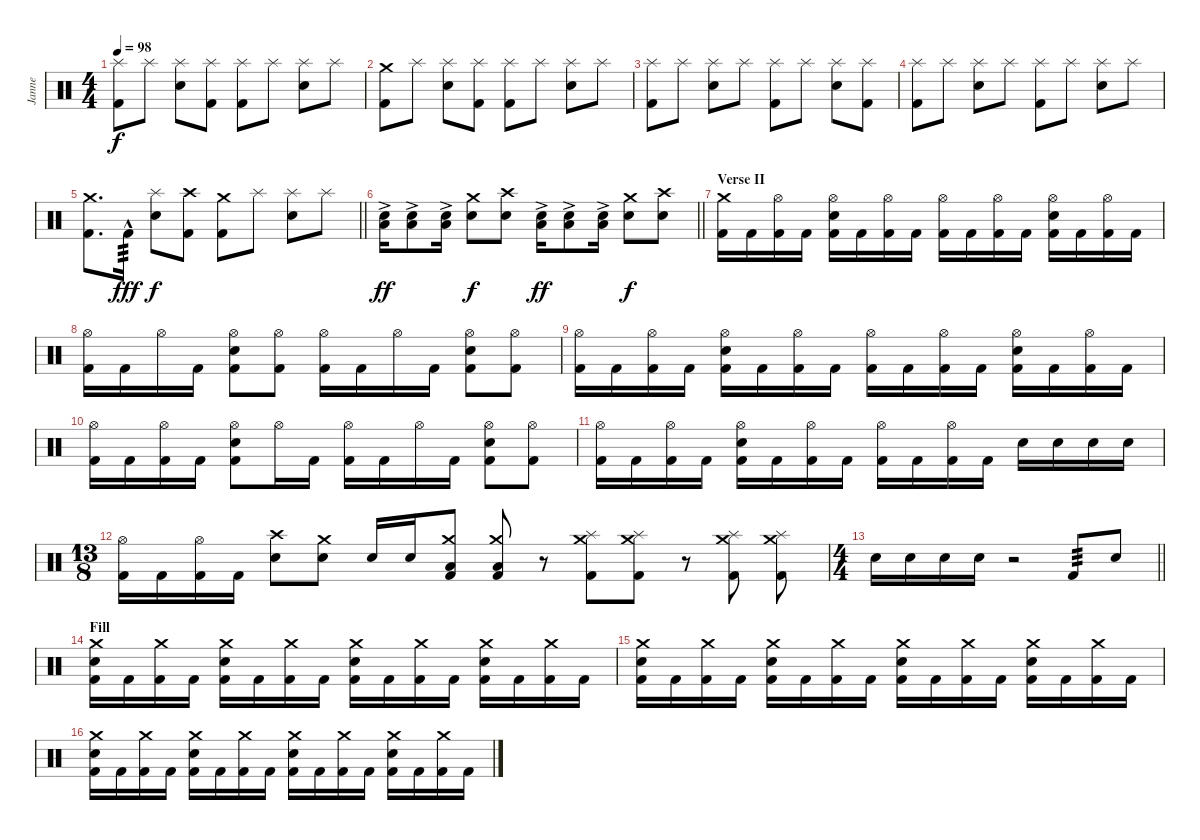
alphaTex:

\track ("Janne" "Janne") {instrument percussion}
\staff {score}
\articulation defaults
\ts (4 4)
\tempo 98
\clef neutral
\ks c
("Kick (hit) 2" "Splash (hit)").8{dy f} "Splash (hit)".8 ("Snare (hit) 2" "Splash (hit)").8 ("Kick (hit) 2" "Splash (hit)").8 ("Kick (hit) 2" "Splash (hit)").8 "Splash (hit)".8 ("Snare (hit) 2" "Splash (hit)").8 "Splash (hit)".8 |
("Kick (hit) 2" "Crash medium (hit)").8 "Splash (hit)".8 ("Snare (hit) 2" "Splash (hit)").8 ("Kick (hit) 2" "Splash (hit)").8 ("Kick (hit) 2" "Splash (hit)").8 "Splash (hit)".8 ("Snare (hit) 2" "Splash (hit)").8 "Splash (hit)".8 |
("Kick (hit) 2" "Splash (hit)").8 "Splash (hit)".8 ("Snare (hit) 2" "Splash (hit)").8 "Splash (hit)".8 ("Kick (hit) 2" "Splash (hit)").8 "Splash (hit)".8 ("Snare (hit) 2" "Splash (hit)").8 ("Kick (hit) 2" "Splash (hit)").8 |
("Kick (hit) 2" "Splash (hit)").8 "Splash (hit)".8 ("Snare (hit) 2" "Splash (hit)").8 "Splash (hit)".8 ("Kick (hit) 2" "Splash (hit)").8 "Splash (hit)".8 ("Snare (hit) 2" "Splash (hit)").8 "Splash (hit)".8 |
\barLineRight lightlight
("Kick (hit) 2" "Crash medium (hit)").8{d} "Kick (hit) 2"{hac}.16{tp 3 dy fff} ("Snare (hit) 2" "Splash (hit)").8{dy f} ("Kick (hit) 2" "Crash high (hit)").8 ("Kick (hit) 2" "Crash medium (hit)").8 "Splash (hit)".8 ("Snare (hit) 2" "Splash (hit)").8 "Splash (hit)".8 |
\section ("" "")
\barLineRight lightlight
("Snare (hit) 2" "Low Floor Tom (hit)"{ac}).16{dy ff} ("Snare (hit) 2" "Low Floor Tom (hit)"{ac}).8 ("Snare (hit) 2" "Low Floor Tom (hit)"{ac}).16 ("Snare (hit) 2" "Crash medium (hit)").8{dy f} ("Snare (hit) 2" "Crash high (hit)").8 ("Snare (hit) 2" "Low Floor Tom (hit)"{ac}).16{dy ff} ("Snare (hit) 2" "Low Floor Tom (hit)"{ac}).8 ("Snare (hit) 2" "Low Floor Tom (hit)"{ac}).16 ("Snare (hit) 2" "Crash medium (hit)").8{dy f} ("Snare (hit) 2" "Crash high (hit)").8 |
\section ("" "Verse II")
("Kick (hit) 2" "Crash medium (hit)").16 "Kick (hit) 2".16 ("Kick (hit) 2" "Hi-Hat (open)").16 "Kick (hit) 2".16 ("Kick (hit) 2" "Snare (hit) 2" "Hi-Hat (open)").16 "Kick (hit) 2".16 ("Kick (hit) 2" "Hi-Hat (open)").16 "Kick (hit) 2".16 ("Kick (hit) 2" "Hi-Hat (open)").16 "Kick (hit) 2".16 ("Kick (hit) 2" "Hi-Hat (open)").16 "Kick (hit) 2".16 ("Kick (hit) 2" "Snare (hit) 2" "Hi-Hat (open)").16 "Kick (hit) 2".16 ("Kick (hit) 2" "Hi-Hat (open)").16 "Kick (hit) 2".16 |
("Kick (hit) 2" "Hi-Hat (open)").16 "Kick (hit) 2".16 "Hi-Hat (open)".16 "Kick (hit) 2".16 ("Kick (hit) 2" "Snare (hit) 2" "Hi-Hat (open)").8 ("Kick (hit) 2" "Hi-Hat (open)").8 ("Kick (hit) 2" "Hi-Hat (open)").16 "Kick (hit) 2".16 "Hi-Hat (open)".16 "Kick (hit) 2".16 ("Kick (hit) 2" "Snare (hit) 2" "Hi-Hat (open)").8 ("Kick (hit) 2" "Hi-Hat (open)").8 |
("Kick (hit) 2" "Hi-Hat (open)").16 "Kick (hit) 2".16 ("Kick (hit) 2" "Hi-Hat (open)").16 "Kick (hit) 2".16 ("Kick (hit) 2" "Snare (hit) 2" "Hi-Hat (open)").16 "Kick (hit) 2".16 ("Kick (hit) 2" "Hi-Hat (open)").16 "Kick (hit) 2".16 ("Kick (hit) 2" "Hi-Hat (open)").16 "Kick (hit) 2".16 ("Kick (hit) 2" "Hi-Hat (open)").16 "Kick (hit) 2".16 ("Kick (hit) 2" "Snare (hit) 2" "Hi-Hat (open)").16 "Kick (hit) 2".16 ("Kick (hit) 2" "Hi-Hat (open)").16 "Kick (hit) 2".16 |
("Kick (hit) 2" "Hi-Hat (open)").16 "Kick (hit) 2".16 ("Kick (hit) 2" "Hi-Hat (open)").16 "Kick (hit) 2".16 ("Kick (hit) 2" "Snare (hit) 2" "Hi-Hat (open)").8 "Hi-Hat (open)".16 "Kick (hit) 2".16 ("Kick (hit) 2" "Hi-Hat (open)").16 "Kick (hit) 2".16 "Hi-Hat (open)".16 "Kick (hit) 2".16 ("Kick (hit) 2" "Snare (hit) 2" "Hi-Hat (open)").8 ("Kick (hit) 2" "Hi-Hat (open)").8 |
("Kick (hit) 2" "Hi-Hat (open)").16 "Kick (hit) 2".16 ("Kick (hit) 2" "Hi-Hat (open)").16 "Kick (hit) 2".16 ("Kick (hit) 2" "Snare (hit) 2" "Hi-Hat (open)").16 "Kick (hit) 2".16 ("Kick (hit) 2" "Hi-Hat (open)").16 "Kick (hit) 2".16 ("Kick (hit) 2" "Hi-Hat (open)").16 "Kick (hit) 2".16 ("Kick (hit) 2" "Hi-Hat (open)").16 "Kick (hit) 2".16 "Snare (hit) 2".16 "Snare (hit) 2".16 "Snare (hit) 2".16 "Snare (hit) 2".16 |
\ts (13 8)
("Kick (hit) 2" "Hi-Hat (open)").16 "Kick (hit) 2".16 ("Kick (hit) 2" "Hi-Hat (open)").16 "Kick (hit) 2".16 ("Snare (hit) 2" "Crash high (hit)").8 ("Snare (hit) 2" "Crash medium (hit)").8 "Snare (hit) 2".16 "Snare (hit) 2".16 ("Kick (hit) 2" "Low Floor Tom (hit)" "Crash medium (hit)").8 ("Kick (hit) 2" "Low Floor Tom (hit)" "Crash medium (hit)").8 r.8 ("Kick (hit) 2" "Crash medium (hit)" "Splash (hit)").8 ("Kick (hit) 2" "Crash medium (hit)" "Splash (hit)").8 r.8 ("Kick (hit) 2" "Crash medium (hit)" "Splash (hit)").8 ("Kick (hit) 2" "Crash medium (hit)" "Splash (hit)").8 |
\ts (4 4)
\barLineRight lightlight "Snare (hit) 2".16 "Snare (hit) 2".16 "Snare (hit) 2".16 "Snare (hit) 2".16
r.2 "Kick (hit) 2".8{tp 3} "Snare (hit) 2".8 |
\section ("" "Fill")
("Kick (hit) 2" "Snare (hit) 2" "Crash medium (hit)").16 "Kick (hit) 2".16 ("Kick (hit) 2" "Crash medium (hit)").16 "Kick (hit) 2".16 ("Kick (hit) 2" "Snare (hit) 2" "Crash medium (hit)").16 "Kick (hit) 2".16 ("Kick (hit) 2" "Crash medium (hit)").16 "Kick (hit) 2".16 ("Kick (hit) 2" "Snare (hit) 2" "Crash medium (hit)").16 "Kick (hit) 2".16 ("Kick (hit) 2" "Crash medium (hit)").16 "Kick (hit) 2".16 ("Kick (hit) 2" "Snare (hit) 2" "Crash medium (hit)").16 "Kick (hit) 2".16 ("Kick (hit) 2" "Crash medium (hit)").16 "Kick (hit) 2".16 |
("Kick (hit) 2" "Snare (hit) 2" "Crash medium (hit)").16 "Kick (hit) 2".16 ("Kick (hit) 2" "Crash medium (hit)").16 "Kick (hit) 2".16 ("Kick (hit) 2" "Snare (hit) 2" "Crash medium (hit)").16 "Kick (hit) 2".16 ("Kick (hit) 2" "Crash medium (hit)").16 "Kick (hit) 2".16 ("Kick (hit) 2" "Snare (hit) 2" "Crash medium (hit)").16 "Kick (hit) 2".16 ("Kick (hit) 2" "Crash medium (hit)").16 "Kick (hit) 2".16 ("Kick (hit) 2" "Snare (hit) 2" "Crash medium (hit)").16 "Kick (hit) 2".16 ("Kick (hit) 2" "Crash medium (hit)").16 "Kick (hit) 2".16 |
("Kick (hit) 2" "Snare (hit) 2" "Crash medium (hit)").16 "Kick (hit) 2".16 ("Kick (hit) 2" "Crash medium (hit)").16 "Kick (hit) 2".16 ("Kick (hit) 2" "Snare (hit) 2" "Crash medium (hit)").16 "Kick (hit) 2".16 ("Kick (hit) 2" "Crash medium (hit)").16 "Kick (hit) 2".16 ("Kick (hit) 2" "Snare (hit) 2" "Crash medium (hit)").16 "Kick (hit) 2".16 ("Kick (hit) 2" "Crash medium (hit)").16 "Kick (hit) 2".16 ("Kick (hit) 2" "Snare (hit) 2" "Crash medium (hit)").16 "Kick (hit) 2".16 ("Kick (hit) 2" "Crash medium (hit)").16 "Kick (hit) 2".16
